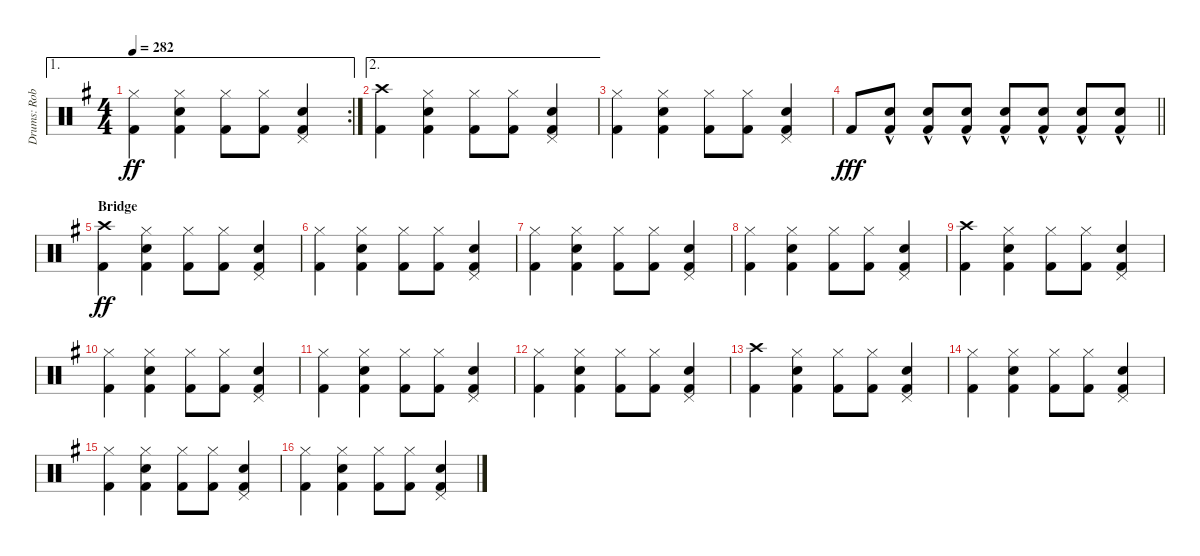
\track ("Drums: Rob" "Drums: Rob") {instrument percussion}
\staff {score}
\articulation defaults
\ae 1
\rc 2
\ts (4 4)
\tempo 282
\clef neutral
\ks g
("Hi-Hat (closed)" "Kick (hit) 2").4{dy ff} ("Hi-Hat (closed)" "Snare (hit) 2" "Kick (hit) 2").4 ("Hi-Hat (closed)" "Kick (hit) 2").8 ("Hi-Hat (closed)" "Kick (hit) 2").8 ("Pedal Hi-Hat (hit)" "Snare (hit) 2" "Kick (hit) 2").4 |
\ae 2
("Crash high (hit)" "Kick (hit) 2").4 ("Hi-Hat (closed)" "Snare (hit) 2" "Kick (hit) 2").4 ("Hi-Hat (closed)" "Kick (hit) 2").8 ("Hi-Hat (closed)" "Kick (hit) 2").8 ("Pedal Hi-Hat (hit)" "Snare (hit) 2" "Kick (hit) 2").4 |
("Hi-Hat (closed)" "Kick (hit) 2").4 ("Hi-Hat (closed)" "Snare (hit) 2" "Kick (hit) 2").4 ("Hi-Hat (closed)" "Kick (hit) 2").8 ("Hi-Hat (closed)" "Kick (hit) 2").8 ("Pedal Hi-Hat (hit)" "Snare (hit) 2" "Kick (hit) 2").4 |
\barLineRight lightlight "Kick (hit) 2".8{dy fff}
("Snare (hit) 2" "Kick (hit) 2"{hac}).8 ("Snare (hit) 2" "Kick (hit) 2"{hac}).8 ("Snare (hit) 2" "Kick (hit) 2"{hac}).8 ("Snare (hit) 2"{hac} "Kick (hit) 2"{hac}).8 ("Snare (hit) 2" "Kick (hit) 2"{hac}).8 ("Snare (hit) 2"{hac} "Kick (hit) 2").8 ("Snare (hit) 2" "Kick (hit) 2"{hac}).8 |
\section ("" "Bridge")
("Crash high (hit)" "Kick (hit) 2").4{dy ff} ("Hi-Hat (closed)" "Snare (hit) 2" "Kick (hit) 2").4 ("Hi-Hat (closed)" "Kick (hit) 2").8 ("Hi-Hat (closed)" "Kick (hit) 2").8 ("Pedal Hi-Hat (hit)" "Snare (hit) 2" "Kick (hit) 2").4 |
("Hi-Hat (closed)" "Kick (hit) 2").4 ("Hi-Hat (closed)" "Snare (hit) 2" "Kick (hit) 2").4 ("Hi-Hat (closed)" "Kick (hit) 2").8 ("Hi-Hat (closed)" "Kick (hit) 2").8 ("Pedal Hi-Hat (hit)" "Snare (hit) 2" "Kick (hit) 2").4 |
("Hi-Hat (closed)" "Kick (hit) 2").4 ("Hi-Hat (closed)" "Snare (hit) 2" "Kick (hit) 2").4 ("Hi-Hat (closed)" "Kick (hit) 2").8 ("Hi-Hat (closed)" "Kick (hit) 2").8 ("Pedal Hi-Hat (hit)" "Snare (hit) 2" "Kick (hit) 2").4 |
("Hi-Hat (closed)" "Kick (hit) 2").4 ("Hi-Hat (closed)" "Snare (hit) 2" "Kick (hit) 2").4 ("Hi-Hat (closed)" "Kick (hit) 2").8 ("Hi-Hat (closed)" "Kick (hit) 2").8 ("Pedal Hi-Hat (hit)" "Snare (hit) 2" "Kick (hit) 2").4 |
("Crash high (hit)" "Kick (hit) 2").4 ("Hi-Hat (closed)" "Snare (hit) 2" "Kick (hit) 2").4 ("Hi-Hat (closed)" "Kick (hit) 2").8 ("Hi-Hat (closed)" "Kick (hit) 2").8 ("Pedal Hi-Hat (hit)" "Snare (hit) 2" "Kick (hit) 2").4 |
("Hi-Hat (closed)" "Kick (hit) 2").4 ("Hi-Hat (closed)" "Snare (hit) 2" "Kick (hit) 2").4 ("Hi-Hat (closed)" "Kick (hit) 2").8 ("Hi-Hat (closed)" "Kick (hit) 2").8 ("Pedal Hi-Hat (hit)" "Snare (hit) 2" "Kick (hit) 2").4 |
("Hi-Hat (closed)" "Kick (hit) 2").4 ("Hi-Hat (closed)" "Snare (hit) 2" "Kick (hit) 2").4 ("Hi-Hat (closed)" "Kick (hit) 2").8 ("Hi-Hat (closed)" "Kick (hit) 2").8 ("Pedal Hi-Hat (hit)" "Snare (hit) 2" "Kick (hit) 2").4 |
("Hi-Hat (closed)" "Kick (hit) 2").4 ("Hi-Hat (closed)" "Snare (hit) 2" "Kick (hit) 2").4 ("Hi-Hat (closed)" "Kick (hit) 2").8 ("Hi-Hat (closed)" "Kick (hit) 2").8 ("Pedal Hi-Hat (hit)" "Snare (hit) 2" "Kick (hit) 2").4 |
("Crash high (hit)" "Kick (hit) 2").4 ("Hi-Hat (closed)" "Snare (hit) 2" "Kick (hit) 2").4 ("Hi-Hat (closed)" "Kick (hit) 2").8 ("Hi-Hat (closed)" "Kick (hit) 2").8 ("Pedal Hi-Hat (hit)" "Snare (hit) 2" "Kick (hit) 2").4 |
("Hi-Hat (closed)" "Kick (hit) 2").4 ("Hi-Hat (closed)" "Snare (hit) 2" "Kick (hit) 2").4 ("Hi-Hat (closed)" "Kick (hit) 2").8 ("Hi-Hat (closed)" "Kick (hit) 2").8 ("Pedal Hi-Hat (hit)" "Snare (hit) 2" "Kick (hit) 2").4 |
("Hi-Hat (closed)" "Kick (hit) 2").4 ("Hi-Hat (closed)" "Snare (hit) 2" "Kick (hit) 2").4 ("Hi-Hat (closed)" "Kick (hit) 2").8 ("Hi-Hat (closed)" "Kick (hit) 2").8 ("Pedal Hi-Hat (hit)" "Snare (hit) 2" "Kick (hit) 2").4 |
("Hi-Hat (closed)" "Kick (hit) 2").4 ("Hi-Hat (closed)" "Snare (hit) 2" "Kick (hit) 2").4 ("Hi-Hat (closed)" "Kick (hit) 2").8 ("Hi-Hat (closed)" "Kick (hit) 2").8 ("Pedal Hi-Hat (hit)" "Snare (hit) 2" "Kick (hit) 2").4
